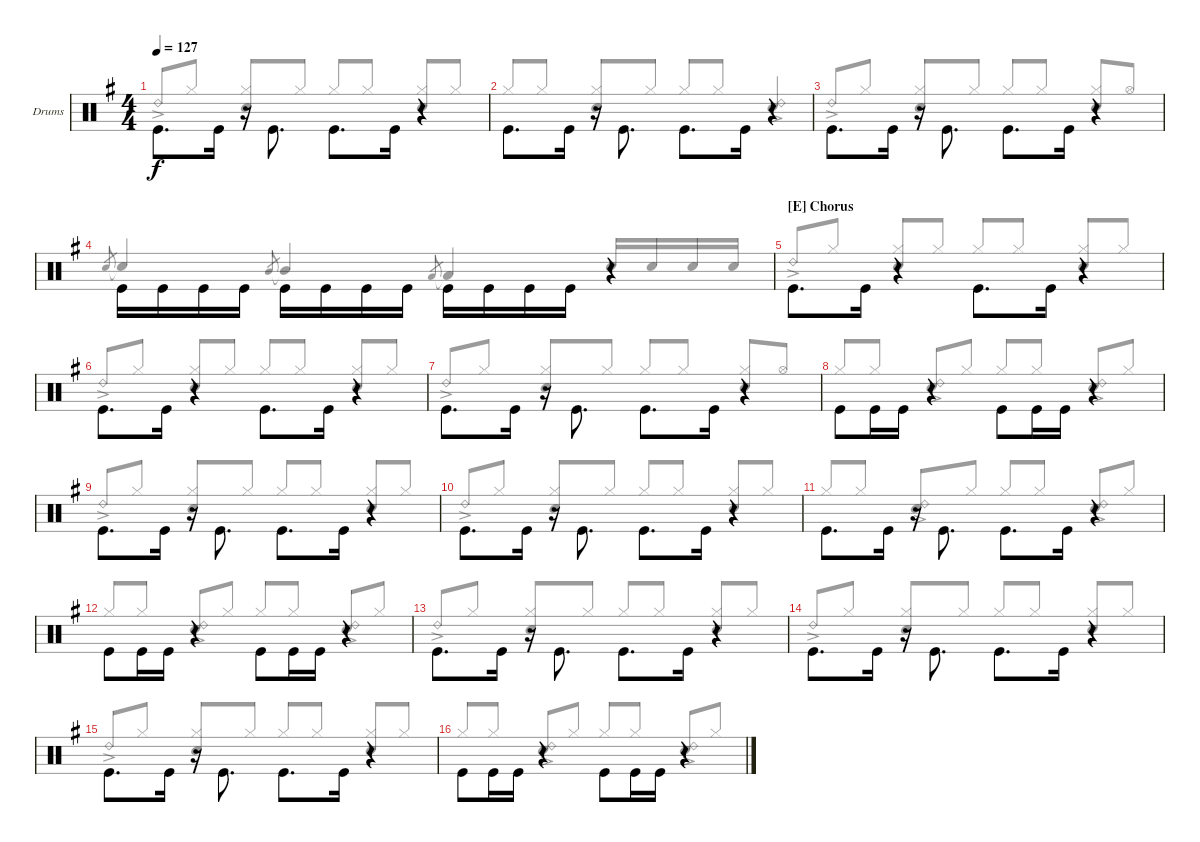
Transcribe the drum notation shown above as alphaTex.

\defaultSystemsLayout 4
\bracketExtendMode groupsimilarinstruments
\firstSystemTrackNameOrientation horizontal
\otherSystemsTrackNameOrientation horizontal
\track ("Drums" "Drums") {instrument percussion}
\staff {score}
\articulation defaults
\voice
\ts (4 4)
\tempo 127
\clef neutral
\scale
1.02648
\ks g "Kick (hit)".8{d dy f beam invert} "Kick (hit)".16
r.16{beam invert} "Kick (hit)".8{d beam invert} "Kick (hit)".8{d beam invert} "Kick (hit)".16 r.4 |
\scale
0.973518 "Kick (hit)".8{d beam invert} "Kick (hit)".16 r.16{beam invert} "Kick (hit)".8{d beam invert} "Kick (hit)".8{d beam invert} "Kick (hit)".16 r.4 |
\scale
1.02648 "Kick (hit)".8{d beam invert} "Kick (hit)".16 r.16{beam invert} "Kick (hit)".8{d beam invert} "Kick (hit)".8{d beam invert} "Kick (hit)".16 r.4 |
\scale
0.973518 "Kick (hit)".16{beam invert} "Kick (hit)".16 "Kick (hit)".16 "Kick (hit)".16 "Kick (hit)".16{beam invert} "Kick (hit)".16 "Kick (hit)".16 "Kick (hit)".16 "Kick (hit)".16{beam invert} "Kick (hit)".16 "Kick (hit)".16 "Kick (hit)".16 r.4 |
\section ("E" "Chorus")
\scale
1.02648 "Kick (hit)".8{d beam invert} "Kick (hit)".16 r.4 "Kick (hit)".8{d beam invert} "Kick (hit)".16 r.4 |
\scale
0.973518 "Kick (hit)".8{d beam invert} "Kick (hit)".16 r.4 "Kick (hit)".8{d beam invert} "Kick (hit)".16 r.4 |
\scale
1.02648 "Kick (hit)".8{d beam invert} "Kick (hit)".16 r.16{beam invert} "Kick (hit)".8{d beam invert} "Kick (hit)".8{d beam invert} "Kick (hit)".16 r.4 |
\scale
0.973518 "Kick (hit)".8{beam invert} "Kick (hit)".16 "Kick (hit)".16 r.4{beam invert} "Kick (hit)".8{beam invert} "Kick (hit)".16 "Kick (hit)".16 r.4{beam invert} |
\scale
1.02648 "Kick (hit)".8{d beam invert} "Kick (hit)".16 r.16{beam invert} "Kick (hit)".8{d beam invert} "Kick (hit)".8{d beam invert} "Kick (hit)".16 r.4 |
\scale
0.973518 "Kick (hit)".8{d beam invert} "Kick (hit)".16 r.16{beam invert} "Kick (hit)".8{d beam invert} "Kick (hit)".8{d beam invert} "Kick (hit)".16 r.4 |
\scale
1.02648 "Kick (hit)".8{d beam invert} "Kick (hit)".16 r.16{beam invert} "Kick (hit)".8{d beam invert} "Kick (hit)".8{d beam invert} "Kick (hit)".16 r.4 |
\scale
0.973518 "Kick (hit)".8{beam invert} "Kick (hit)".16 "Kick (hit)".16 r.4{beam invert} "Kick (hit)".8{beam invert} "Kick (hit)".16 "Kick (hit)".16 r.4{beam invert} |
\scale
1.02648 "Kick (hit)".8{d beam invert} "Kick (hit)".16 r.16{beam invert} "Kick (hit)".8{d beam invert} "Kick (hit)".8{d beam invert} "Kick (hit)".16 r.4 |
\scale
0.973518 "Kick (hit)".8{d beam invert} "Kick (hit)".16 r.16{beam invert} "Kick (hit)".8{d beam invert} "Kick (hit)".8{d beam invert} "Kick (hit)".16 r.4 |
\scale
1.02648 "Kick (hit)".8{d beam invert} "Kick (hit)".16 r.16{beam invert} "Kick (hit)".8{d beam invert} "Kick (hit)".8{d beam invert} "Kick (hit)".16 r.4 |
\scale
0.973518 "Kick (hit)".8{beam invert} "Kick (hit)".16 "Kick (hit)".16 r.4{beam invert} "Kick (hit)".8{beam invert} "Kick (hit)".16 "Kick (hit)".16 r.4{beam invert}
\voice
\clef neutral
\ottava regular
\simile none
\scale
1.02648
\ks g "Ride (bell) 2"{ac}.8{dy f beam invert} "Hi-Hat (closed)".8
("Hi-Hat (closed)" "Snare (hit) 2").8{beam invert} "Hi-Hat (closed)".8 "Hi-Hat (closed)".8{beam invert} "Hi-Hat (closed)".8 ("Hi-Hat (closed)" "Snare (hit) 2").8{beam invert} "Hi-Hat (closed)".8 |
\scale
0.973518 "Hi-Hat (closed)".8{beam invert} "Hi-Hat (closed)".8 ("Hi-Hat (closed)" "Snare (hit) 2").8{beam invert} "Hi-Hat (closed)".8 "Hi-Hat (closed)".8{beam invert} "Hi-Hat (closed)".8 ("Ride (bell) 2"{ac} "Snare (hit) 2").4{beam invert} |
\scale
1.02648 "Ride (bell) 2"{ac}.8{beam invert} "Hi-Hat (closed)".8 ("Hi-Hat (closed)" "Snare (hit) 2").8{beam invert} "Hi-Hat (closed)".8 "Hi-Hat (closed)".8{beam invert} "Hi-Hat (closed)".8 ("Hi-Hat (closed)" "Snare (hit) 2").8{beam invert} "Hi-Hat (open)".8 |
\scale
0.973518 "Snare (hit) 2".8{gr beam invert} "Snare (hit) 2"{t}.4{beam invert} "Mid Tom (hit)".8{gr beam invert} "Mid Tom (hit)"{t}.4{beam invert} "Low Tom (hit)".8{gr beam invert} "Low Tom (hit)"{t}.4{beam invert} "Snare (hit) 2".16{beam invert} "Snare (hit) 2".16 "Snare (hit) 2".16 "Snare (hit) 2".16 |
\scale
1.02648 "Ride (bell) 2"{ac}.8{beam invert} "Hi-Hat (closed)".8 ("Hi-Hat (closed)" "Snare (hit) 2").8{beam invert} "Hi-Hat (closed)".8 "Hi-Hat (closed)".8{beam invert} "Hi-Hat (closed)".8 ("Hi-Hat (closed)" "Snare (hit) 2").8{beam invert} "Hi-Hat (closed)".8 |
\scale
0.973518 "Ride (bell) 2"{ac}.8{beam invert} "Hi-Hat (closed)".8 ("Hi-Hat (closed)" "Snare (hit) 2").8{beam invert} "Hi-Hat (closed)".8 "Hi-Hat (closed)".8{beam invert} "Hi-Hat (closed)".8 ("Hi-Hat (closed)" "Snare (hit) 2").8{beam invert} "Hi-Hat (closed)".8 |
\scale
1.02648 "Ride (bell) 2"{ac}.8{beam invert} "Hi-Hat (closed)".8 ("Hi-Hat (closed)" "Snare (hit) 2").8{beam invert} "Hi-Hat (closed)".8 "Hi-Hat (closed)".8{beam invert} "Hi-Hat (closed)".8 ("Hi-Hat (closed)" "Snare (hit) 2").8{beam invert} "Hi-Hat (open)".8 |
\scale
0.973518 "Hi-Hat (closed)".8{beam invert} "Hi-Hat (closed)".8 ("Snare (hit) 2" "Ride (bell) 2"{ac}).8{beam invert} "Hi-Hat (closed)".8 "Hi-Hat (closed)".8{beam invert} "Hi-Hat (closed)".8 ("Snare (hit) 2" "Ride (bell) 2"{ac}).8{beam invert} "Hi-Hat (closed)".8 |
\scale
1.02648 "Ride (bell) 2"{ac}.8{beam invert} "Hi-Hat (closed)".8 ("Hi-Hat (closed)" "Snare (hit) 2").8{beam invert} "Hi-Hat (closed)".8 "Hi-Hat (closed)".8{beam invert} "Hi-Hat (closed)".8 ("Hi-Hat (closed)" "Snare (hit) 2").8{beam invert} "Hi-Hat (closed)".8 |
\scale
0.973518 "Ride (bell) 2"{ac}.8{beam invert} "Hi-Hat (closed)".8 ("Hi-Hat (closed)" "Snare (hit) 2").8{beam invert} "Hi-Hat (closed)".8 "Hi-Hat (closed)".8{beam invert} "Hi-Hat (closed)".8 ("Hi-Hat (closed)" "Snare (hit) 2").8{beam invert} "Hi-Hat (closed)".8 |
\scale
1.02648 "Hi-Hat (closed)".8{beam invert} "Hi-Hat (closed)".8 ("Snare (hit) 2" "Ride (bell) 2"{ac}).8{beam invert} "Hi-Hat (closed)".8 "Hi-Hat (closed)".8{beam invert} "Hi-Hat (closed)".8 ("Snare (hit) 2" "Ride (bell) 2"{ac}).8{beam invert} "Hi-Hat (closed)".8 |
\scale
0.973518 "Hi-Hat (closed)".8{beam invert} "Hi-Hat (closed)".8 ("Snare (hit) 2" "Ride (bell) 2"{ac}).8{beam invert} "Hi-Hat (closed)".8 "Hi-Hat (closed)".8{beam invert} "Hi-Hat (closed)".8 ("Snare (hit) 2" "Ride (bell) 2"{ac}).8{beam invert} "Hi-Hat (closed)".8 |
\scale
1.02648 "Ride (bell) 2"{ac}.8{beam invert} "Hi-Hat (closed)".8 ("Hi-Hat (closed)" "Snare (hit) 2").8{beam invert} "Hi-Hat (closed)".8 "Hi-Hat (closed)".8{beam invert} "Hi-Hat (closed)".8 ("Hi-Hat (closed)" "Snare (hit) 2").8{beam invert} "Hi-Hat (closed)".8 |
\scale
0.973518 "Ride (bell) 2"{ac}.8{beam invert} "Hi-Hat (closed)".8 ("Hi-Hat (closed)" "Snare (hit) 2").8{beam invert} "Hi-Hat (closed)".8 "Hi-Hat (closed)".8{beam invert} "Hi-Hat (closed)".8 ("Hi-Hat (closed)" "Snare (hit) 2").8{beam invert} "Hi-Hat (closed)".8 |
\scale
1.02648 "Ride (bell) 2"{ac}.8{beam invert} "Hi-Hat (closed)".8 ("Hi-Hat (closed)" "Snare (hit) 2").8{beam invert} "Hi-Hat (closed)".8 "Hi-Hat (closed)".8{beam invert} "Hi-Hat (closed)".8 ("Hi-Hat (closed)" "Snare (hit) 2").8{beam invert} "Hi-Hat (closed)".8 |
\scale
0.973518 "Hi-Hat (closed)".8{beam invert} "Hi-Hat (closed)".8 ("Snare (hit) 2" "Ride (bell) 2"{ac}).8{beam invert} "Hi-Hat (closed)".8 "Hi-Hat (closed)".8{beam invert} "Hi-Hat (closed)".8 ("Snare (hit) 2" "Ride (bell) 2"{ac}).8{beam invert} "Hi-Hat (closed)".8
